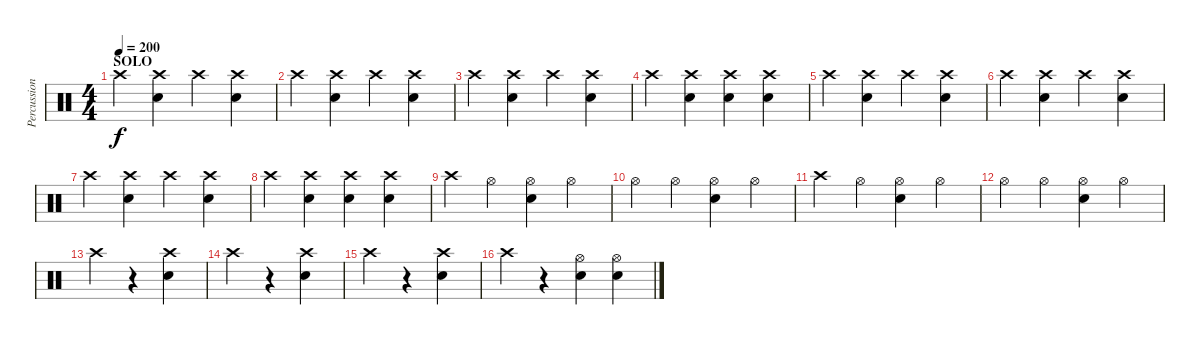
\track ("Percussion" "Percussion") {instrument percussion}
\staff {score}
\articulation defaults
\ts (4 4)
\section ("" "SOLO")
\tempo 200
\clef neutral
\ks c "Crash high (hit)".4{dy f}
("Crash high (hit)" "Snare (hit) 2").4 "Crash high (hit)".4 ("Crash high (hit)" "Snare (hit) 2").4 |
"Crash high (hit)".4 ("Crash high (hit)" "Snare (hit) 2").4 "Crash high (hit)".4 ("Crash high (hit)" "Snare (hit) 2").4 |
"Crash high (hit)".4 ("Crash high (hit)" "Snare (hit) 2").4 "Crash high (hit)".4 ("Crash high (hit)" "Snare (hit) 2").4 |
"Crash high (hit)".4 ("Crash high (hit)" "Snare (hit) 2").4 ("Crash high (hit)" "Snare (hit) 2").4 ("Crash high (hit)" "Snare (hit) 2").4 |
"Crash high (hit)".4 ("Crash high (hit)" "Snare (hit) 2").4 "Crash high (hit)".4 ("Crash high (hit)" "Snare (hit) 2").4 |
"Crash high (hit)".4 ("Crash high (hit)" "Snare (hit) 2").4 "Crash high (hit)".4 ("Crash high (hit)" "Snare (hit) 2").4 |
"Crash high (hit)".4 ("Crash high (hit)" "Snare (hit) 2").4 "Crash high (hit)".4 ("Crash high (hit)" "Snare (hit) 2").4 |
"Crash high (hit)".4 ("Crash high (hit)" "Snare (hit) 2").4 ("Crash high (hit)" "Snare (hit) 2").4 ("Crash high (hit)" "Snare (hit) 2").4 |
"Crash high (hit)".4 "Hi-Hat (open)".4 ("Hi-Hat (open)" "Snare (hit) 2").4 "Hi-Hat (open)".4 |
"Hi-Hat (open)".4 "Hi-Hat (open)".4 ("Hi-Hat (open)" "Snare (hit) 2").4 "Hi-Hat (open)".4 |
"Crash high (hit)".4 "Hi-Hat (open)".4 ("Hi-Hat (open)" "Snare (hit) 2").4 "Hi-Hat (open)".4 |
"Hi-Hat (open)".4 "Hi-Hat (open)".4 ("Hi-Hat (open)" "Snare (hit) 2").4 "Hi-Hat (open)".4 |
"Crash high (hit)".4 r.4 ("Crash high (hit)" "Snare (hit) 2").4 |
"Crash high (hit)".4 r.4 ("Crash high (hit)" "Snare (hit) 2").4 |
"Crash high (hit)".4 r.4 ("Crash high (hit)" "Snare (hit) 2").4 |
"Crash high (hit)".4 r.4 ("Hi-Hat (open)" "Snare (hit) 2").4 ("Hi-Hat (open)" "Snare (hit) 2").4
